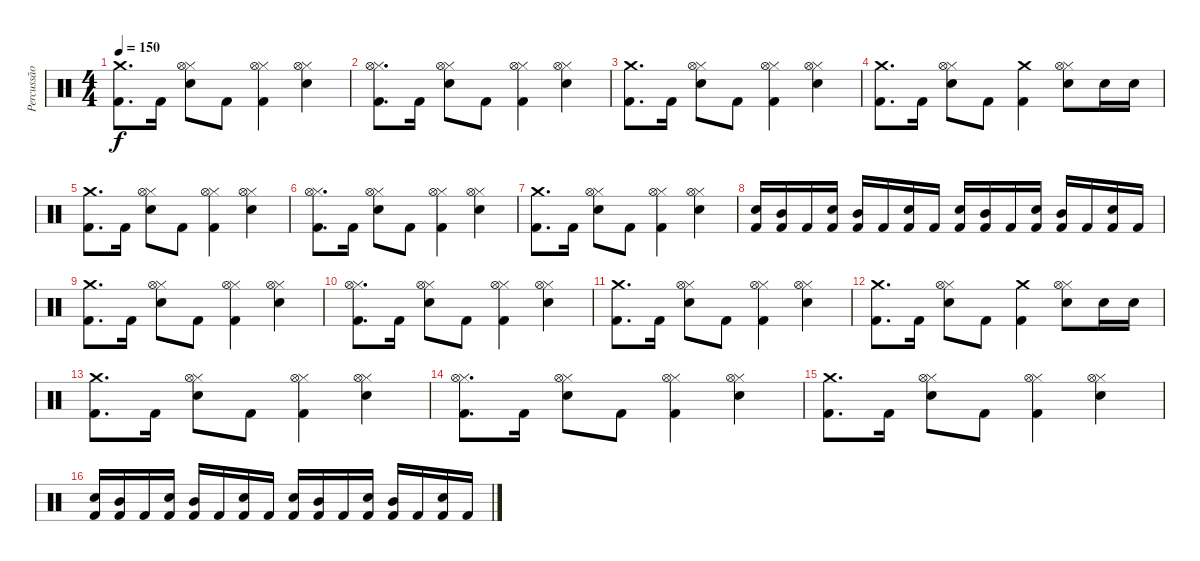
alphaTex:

\track ("Percussão" "Percussão") {instrument percussion}
\staff {score}
\articulation defaults
\ts (4 4)
\tempo 150
\clef neutral
\ks c
("Crash medium (hit)" "Kick (hit) 2").8{d dy f} "Kick (hit) 2".16 ("Hi-Hat (closed)" "Hi-Hat (open)" "Snare (hit) 2").8 "Kick (hit) 2".8 ("Hi-Hat (closed)" "Hi-Hat (open)" "Kick (hit) 2").4 ("Hi-Hat (closed)" "Hi-Hat (open)" "Snare (hit) 2").4 |
("Hi-Hat (closed)" "Hi-Hat (open)" "Kick (hit) 2").8{d} "Kick (hit) 2".16 ("Hi-Hat (closed)" "Hi-Hat (open)" "Snare (hit) 2").8 "Kick (hit) 2".8 ("Hi-Hat (closed)" "Hi-Hat (open)" "Kick (hit) 2").4 ("Hi-Hat (closed)" "Hi-Hat (open)" "Snare (hit) 2").4 |
("Crash medium (hit)" "Kick (hit) 2").8{d} "Kick (hit) 2".16 ("Hi-Hat (closed)" "Hi-Hat (open)" "Snare (hit) 2").8 "Kick (hit) 2".8 ("Hi-Hat (closed)" "Hi-Hat (open)" "Kick (hit) 2").4 ("Hi-Hat (closed)" "Hi-Hat (open)" "Snare (hit) 2").4 |
("Crash medium (hit)" "Kick (hit) 2").8{d} "Kick (hit) 2".16 ("Hi-Hat (closed)" "Hi-Hat (open)" "Snare (hit) 2").8 "Kick (hit) 2".8 ("Crash medium (hit)" "Kick (hit) 2").4 ("Hi-Hat (closed)" "Hi-Hat (open)" "Snare (hit) 2").8 "Snare (hit) 2".16 "Snare (hit) 2".16 |
("Crash medium (hit)" "Kick (hit) 2").8{d} "Kick (hit) 2".16 ("Hi-Hat (closed)" "Hi-Hat (open)" "Snare (hit) 2").8 "Kick (hit) 2".8 ("Hi-Hat (closed)" "Hi-Hat (open)" "Kick (hit) 2").4 ("Hi-Hat (closed)" "Hi-Hat (open)" "Snare (hit) 2").4 |
("Hi-Hat (closed)" "Hi-Hat (open)" "Kick (hit) 2").8{d} "Kick (hit) 2".16 ("Hi-Hat (closed)" "Hi-Hat (open)" "Snare (hit) 2").8 "Kick (hit) 2".8 ("Hi-Hat (closed)" "Hi-Hat (open)" "Kick (hit) 2").4 ("Hi-Hat (closed)" "Hi-Hat (open)" "Snare (hit) 2").4 |
("Crash medium (hit)" "Kick (hit) 2").8{d} "Kick (hit) 2".16 ("Hi-Hat (closed)" "Hi-Hat (open)" "Snare (hit) 2").8 "Kick (hit) 2".8 ("Hi-Hat (closed)" "Hi-Hat (open)" "Kick (hit) 2").4 ("Hi-Hat (closed)" "Hi-Hat (open)" "Snare (hit) 2").4 |
("Snare (hit) 2" "Kick (hit) 2").16 ("Mid Tom (hit)" "Kick (hit) 2").16 "Kick (hit) 2".16 ("Snare (hit) 2" "Kick (hit) 2").16 ("Mid Tom (hit)" "Kick (hit) 2").16 "Kick (hit) 2".16 ("Snare (hit) 2" "Kick (hit) 2").16 "Kick (hit) 2".16 ("Snare (hit) 2" "Kick (hit) 2").16 ("Mid Tom (hit)" "Kick (hit) 2").16 "Kick (hit) 2".16 ("Snare (hit) 2" "Kick (hit) 2").16 ("Mid Tom (hit)" "Kick (hit) 2").16 "Kick (hit) 2".16 ("Snare (hit) 2" "Kick (hit) 2").16 "Kick (hit) 2".16 |
("Crash medium (hit)" "Kick (hit) 2").8{d} "Kick (hit) 2".16 ("Hi-Hat (closed)" "Hi-Hat (open)" "Snare (hit) 2").8 "Kick (hit) 2".8 ("Hi-Hat (closed)" "Hi-Hat (open)" "Kick (hit) 2").4 ("Hi-Hat (closed)" "Hi-Hat (open)" "Snare (hit) 2").4 |
("Hi-Hat (closed)" "Hi-Hat (open)" "Kick (hit) 2").8{d} "Kick (hit) 2".16 ("Hi-Hat (closed)" "Hi-Hat (open)" "Snare (hit) 2").8 "Kick (hit) 2".8 ("Hi-Hat (closed)" "Hi-Hat (open)" "Kick (hit) 2").4 ("Hi-Hat (closed)" "Hi-Hat (open)" "Snare (hit) 2").4 |
("Crash medium (hit)" "Kick (hit) 2").8{d} "Kick (hit) 2".16 ("Hi-Hat (closed)" "Hi-Hat (open)" "Snare (hit) 2").8 "Kick (hit) 2".8 ("Hi-Hat (closed)" "Hi-Hat (open)" "Kick (hit) 2").4 ("Hi-Hat (closed)" "Hi-Hat (open)" "Snare (hit) 2").4 |
("Crash medium (hit)" "Kick (hit) 2").8{d} "Kick (hit) 2".16 ("Hi-Hat (closed)" "Hi-Hat (open)" "Snare (hit) 2").8 "Kick (hit) 2".8 ("Crash medium (hit)" "Kick (hit) 2").4 ("Hi-Hat (closed)" "Hi-Hat (open)" "Snare (hit) 2").8 "Snare (hit) 2".16 "Snare (hit) 2".16 |
("Crash medium (hit)" "Kick (hit) 2").8{d} "Kick (hit) 2".16 ("Hi-Hat (closed)" "Hi-Hat (open)" "Snare (hit) 2").8 "Kick (hit) 2".8 ("Hi-Hat (closed)" "Hi-Hat (open)" "Kick (hit) 2").4 ("Hi-Hat (closed)" "Hi-Hat (open)" "Snare (hit) 2").4 |
("Hi-Hat (closed)" "Hi-Hat (open)" "Kick (hit) 2").8{d} "Kick (hit) 2".16 ("Hi-Hat (closed)" "Hi-Hat (open)" "Snare (hit) 2").8 "Kick (hit) 2".8 ("Hi-Hat (closed)" "Hi-Hat (open)" "Kick (hit) 2").4 ("Hi-Hat (closed)" "Hi-Hat (open)" "Snare (hit) 2").4 |
("Crash medium (hit)" "Kick (hit) 2").8{d} "Kick (hit) 2".16 ("Hi-Hat (closed)" "Hi-Hat (open)" "Snare (hit) 2").8 "Kick (hit) 2".8 ("Hi-Hat (closed)" "Hi-Hat (open)" "Kick (hit) 2").4 ("Hi-Hat (closed)" "Hi-Hat (open)" "Snare (hit) 2").4 |
("Snare (hit) 2" "Kick (hit) 2").16 ("Mid Tom (hit)" "Kick (hit) 2").16 "Kick (hit) 2".16 ("Snare (hit) 2" "Kick (hit) 2").16 ("Mid Tom (hit)" "Kick (hit) 2").16 "Kick (hit) 2".16 ("Snare (hit) 2" "Kick (hit) 2").16 "Kick (hit) 2".16 ("Snare (hit) 2" "Kick (hit) 2").16 ("Mid Tom (hit)" "Kick (hit) 2").16 "Kick (hit) 2".16 ("Snare (hit) 2" "Kick (hit) 2").16 ("Mid Tom (hit)" "Kick (hit) 2").16 "Kick (hit) 2".16 ("Snare (hit) 2" "Kick (hit) 2").16 "Kick (hit) 2".16
